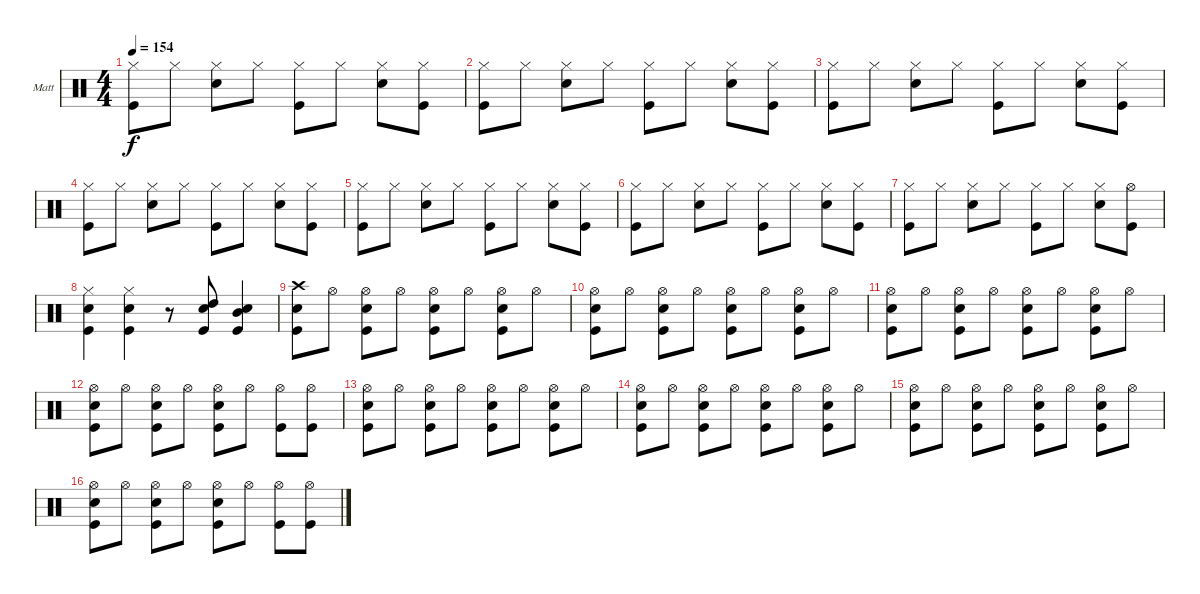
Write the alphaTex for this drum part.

\defaultSystemsLayout 4
\bracketExtendMode groupsimilarinstruments
\firstSystemTrackNameOrientation horizontal
\otherSystemsTrackNameOrientation horizontal
\track ("Matt Helders" "Matt") {instrument percussion}
\staff {score}
\articulation defaults
\ts (4 4)
\tempo 154
\clef neutral
\ks c
("Hi-Hat (closed)" "Kick (hit)").8{dy f} "Hi-Hat (closed)".8 ("Hi-Hat (closed)" "Snare (hit) 2").8 "Hi-Hat (closed)".8 ("Hi-Hat (closed)" "Kick (hit)").8 "Hi-Hat (closed)".8 ("Hi-Hat (closed)" "Snare (hit) 2").8 ("Hi-Hat (closed)" "Kick (hit)").8 |
("Hi-Hat (closed)" "Kick (hit)").8 "Hi-Hat (closed)".8 ("Hi-Hat (closed)" "Snare (hit) 2").8 "Hi-Hat (closed)".8 ("Hi-Hat (closed)" "Kick (hit)").8 "Hi-Hat (closed)".8 ("Hi-Hat (closed)" "Snare (hit) 2").8 ("Hi-Hat (closed)" "Kick (hit)").8 |
("Hi-Hat (closed)" "Kick (hit)").8 "Hi-Hat (closed)".8 ("Hi-Hat (closed)" "Snare (hit) 2").8 "Hi-Hat (closed)".8 ("Hi-Hat (closed)" "Kick (hit)").8 "Hi-Hat (closed)".8 ("Hi-Hat (closed)" "Snare (hit) 2").8 ("Hi-Hat (closed)" "Kick (hit)").8 |
("Hi-Hat (closed)" "Kick (hit)").8 "Hi-Hat (closed)".8 ("Hi-Hat (closed)" "Snare (hit) 2").8 "Hi-Hat (closed)".8 ("Hi-Hat (closed)" "Kick (hit)").8 "Hi-Hat (closed)".8 ("Hi-Hat (closed)" "Snare (hit) 2").8 ("Hi-Hat (closed)" "Kick (hit)").8 |
("Hi-Hat (closed)" "Kick (hit)").8 "Hi-Hat (closed)".8 ("Hi-Hat (closed)" "Snare (hit) 2").8 "Hi-Hat (closed)".8 ("Hi-Hat (closed)" "Kick (hit)").8 "Hi-Hat (closed)".8 ("Hi-Hat (closed)" "Snare (hit) 2").8 ("Hi-Hat (closed)" "Kick (hit)").8 |
("Hi-Hat (closed)" "Kick (hit)").8 "Hi-Hat (closed)".8 ("Hi-Hat (closed)" "Snare (hit) 2").8 "Hi-Hat (closed)".8 ("Hi-Hat (closed)" "Kick (hit)").8 "Hi-Hat (closed)".8 ("Hi-Hat (closed)" "Snare (hit) 2").8 ("Hi-Hat (closed)" "Kick (hit)").8 |
("Hi-Hat (closed)" "Kick (hit)").8 "Hi-Hat (closed)".8 ("Hi-Hat (closed)" "Snare (hit) 2").8 "Hi-Hat (closed)".8 ("Hi-Hat (closed)" "Kick (hit)").8 "Hi-Hat (closed)".8 ("Hi-Hat (closed)" "Snare (hit) 2").8 ("Hi-Hat (open)" "Kick (hit)").8 |
("Kick (hit)" "Snare (hit) 2" "Hi-Hat (closed)").4 ("Kick (hit)" "Snare (hit) 2" "Hi-Hat (closed)").4 r.8 ("Kick (hit)" "Snare (hit) 2" "High Tom (hit)").8 ("Kick (hit)" "Snare (hit) 2" "Mid Tom (hit)").4 |
("Kick (hit)" "Crash high (hit)" "Snare (hit) 2").8 "Hi-Hat (open)".8 ("Hi-Hat (open)" "Kick (hit)" "Snare (hit) 2").8 "Hi-Hat (open)".8 ("Hi-Hat (open)" "Kick (hit)" "Snare (hit) 2").8 "Hi-Hat (open)".8 ("Hi-Hat (open)" "Kick (hit)" "Snare (hit) 2").8 "Hi-Hat (open)".8 |
("Kick (hit)" "Snare (hit) 2" "Hi-Hat (open)").8 "Hi-Hat (open)".8 ("Hi-Hat (open)" "Kick (hit)" "Snare (hit) 2").8 "Hi-Hat (open)".8 ("Hi-Hat (open)" "Kick (hit)" "Snare (hit) 2").8 "Hi-Hat (open)".8 ("Hi-Hat (open)" "Kick (hit)" "Snare (hit) 2").8 "Hi-Hat (open)".8 |
("Kick (hit)" "Snare (hit) 2" "Hi-Hat (open)").8 "Hi-Hat (open)".8 ("Kick (hit)" "Snare (hit) 2" "Hi-Hat (open)").8 "Hi-Hat (open)".8 ("Hi-Hat (open)" "Kick (hit)" "Snare (hit) 2").8 "Hi-Hat (open)".8 ("Hi-Hat (open)" "Kick (hit)" "Snare (hit) 2").8 "Hi-Hat (open)".8 |
("Kick (hit)" "Snare (hit) 2" "Hi-Hat (open)").8 "Hi-Hat (open)".8 ("Hi-Hat (open)" "Kick (hit)" "Snare (hit) 2").8 "Hi-Hat (open)".8 ("Hi-Hat (open)" "Kick (hit)" "Snare (hit) 2").8 "Hi-Hat (open)".8 ("Hi-Hat (open)" "Kick (hit)").8 ("Hi-Hat (open)" "Kick (hit)").8 |
("Kick (hit)" "Snare (hit) 2" "Hi-Hat (open)").8 "Hi-Hat (open)".8 ("Hi-Hat (open)" "Kick (hit)" "Snare (hit) 2").8 "Hi-Hat (open)".8 ("Hi-Hat (open)" "Kick (hit)" "Snare (hit) 2").8 "Hi-Hat (open)".8 ("Hi-Hat (open)" "Kick (hit)" "Snare (hit) 2").8 "Hi-Hat (open)".8 |
("Kick (hit)" "Snare (hit) 2" "Hi-Hat (open)").8 "Hi-Hat (open)".8 ("Hi-Hat (open)" "Kick (hit)" "Snare (hit) 2").8 "Hi-Hat (open)".8 ("Hi-Hat (open)" "Kick (hit)" "Snare (hit) 2").8 "Hi-Hat (open)".8 ("Hi-Hat (open)" "Kick (hit)" "Snare (hit) 2").8 "Hi-Hat (open)".8 |
("Kick (hit)" "Snare (hit) 2" "Hi-Hat (open)").8 "Hi-Hat (open)".8 ("Hi-Hat (open)" "Kick (hit)" "Snare (hit) 2").8 "Hi-Hat (open)".8 ("Hi-Hat (open)" "Kick (hit)" "Snare (hit) 2").8 "Hi-Hat (open)".8 ("Hi-Hat (open)" "Kick (hit)" "Snare (hit) 2").8 "Hi-Hat (open)".8 |
("Kick (hit)" "Snare (hit) 2" "Hi-Hat (open)").8 "Hi-Hat (open)".8 ("Hi-Hat (open)" "Kick (hit)" "Snare (hit) 2").8 "Hi-Hat (open)".8 ("Hi-Hat (open)" "Kick (hit)" "Snare (hit) 2").8 "Hi-Hat (open)".8 ("Hi-Hat (open)" "Kick (hit)").8 ("Hi-Hat (open)" "Kick (hit)").8
